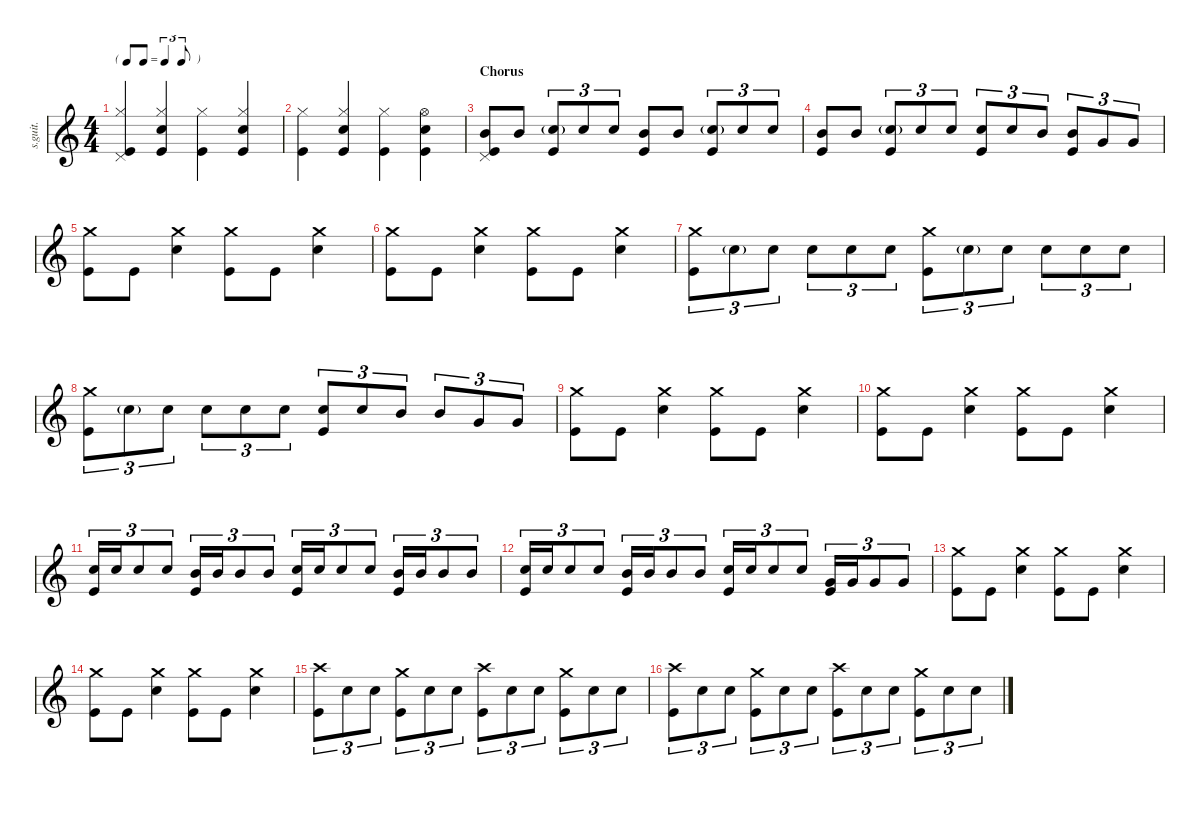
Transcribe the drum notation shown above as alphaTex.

\defaultSystemsLayout 4
\hideDynamics
\bracketExtendMode nobrackets
\track ("Dave Grohl" "s.guit.") {instrument percussion}
\staff {score}
\articulation defaults
\ts (4 4)
\tf triplet8th
\tempo (171 hide)
\clef g2
\ks c
("Kick (hit)" "Hi-Hat (closed)" "Pedal Hi-Hat (hit)").4{lyrics (0 "") lyrics (1 "") lyrics (2 "") lyrics (3 "") lyrics (4 "") dy mf} ("Kick (hit)" "Snare (hit) 2" "Hi-Hat (closed)").4{lyrics (0 "") lyrics (1 "") lyrics (2 "") lyrics (3 "") lyrics (4 "")} ("Kick (hit)" "Hi-Hat (closed)").4{lyrics (0 "") lyrics (1 "") lyrics (2 "") lyrics (3 "") lyrics (4 "")} ("Kick (hit)" "Snare (hit) 2" "Hi-Hat (closed)").4{lyrics (0 "") lyrics (1 "") lyrics (2 "") lyrics (3 "") lyrics (4 "")} |
("Kick (hit)" "Hi-Hat (closed)").4{lyrics (0 "") lyrics (1 "") lyrics (2 "") lyrics (3 "") lyrics (4 "")} ("Kick (hit)" "Snare (hit) 2" "Hi-Hat (closed)").4{lyrics (0 "") lyrics (1 "") lyrics (2 "") lyrics (3 "") lyrics (4 "")} ("Kick (hit)" "Hi-Hat (closed)").4{lyrics (0 "") lyrics (1 "") lyrics (2 "") lyrics (3 "") lyrics (4 "")} ("Hi-Hat (open)" "Snare (hit) 2" "Kick (hit)").4{lyrics (0 "") lyrics (1 "") lyrics (2 "") lyrics (3 "") lyrics (4 "")} |
\section ("" "Chorus")
("Mid Tom (hit)" "Kick (hit)" "Pedal Hi-Hat (hit)").8{lyrics (0 "") lyrics (1 "") lyrics (2 "") lyrics (3 "") lyrics (4 "")} "Mid Tom (hit)".8{lyrics (0 "") lyrics (1 "") lyrics (2 "") lyrics (3 "") lyrics (4 "")} ("Snare (hit) 2"{g} "Kick (hit)").8{tu (3 2) lyrics (0 "") lyrics (1 "") lyrics (2 "") lyrics (3 "") lyrics (4 "")} "Snare (hit) 2".8{tu (3 2) lyrics (0 "") lyrics (1 "") lyrics (2 "") lyrics (3 "") lyrics (4 "")} "Snare (hit) 2".8{tu (3 2) lyrics (0 "") lyrics (1 "") lyrics (2 "") lyrics (3 "") lyrics (4 "")} ("Mid Tom (hit)" "Kick (hit)").8{lyrics (0 "") lyrics (1 "") lyrics (2 "") lyrics (3 "") lyrics (4 "")} "Mid Tom (hit)".8{lyrics (0 "") lyrics (1 "") lyrics (2 "") lyrics (3 "") lyrics (4 "")} ("Snare (hit) 2"{g} "Kick (hit)").8{tu (3 2) lyrics (0 "") lyrics (1 "") lyrics (2 "") lyrics (3 "") lyrics (4 "")} "Snare (hit) 2".8{tu (3 2) lyrics (0 "") lyrics (1 "") lyrics (2 "") lyrics (3 "") lyrics (4 "")} "Snare (hit) 2".8{tu (3 2) lyrics (0 "") lyrics (1 "") lyrics (2 "") lyrics (3 "") lyrics (4 "")} |
("Mid Tom (hit)" "Kick (hit)").8{lyrics (0 "") lyrics (1 "") lyrics (2 "") lyrics (3 "") lyrics (4 "")} "Mid Tom (hit)".8{lyrics (0 "") lyrics (1 "") lyrics (2 "") lyrics (3 "") lyrics (4 "")} ("Snare (hit) 2"{g} "Kick (hit)").8{tu (3 2) lyrics (0 "") lyrics (1 "") lyrics (2 "") lyrics (3 "") lyrics (4 "")} "Snare (hit) 2".8{tu (3 2) lyrics (0 "") lyrics (1 "") lyrics (2 "") lyrics (3 "") lyrics (4 "")} "Snare (hit) 2".8{tu (3 2) lyrics (0 "") lyrics (1 "") lyrics (2 "") lyrics (3 "") lyrics (4 "")} ("Snare (hit) 2" "Kick (hit)").8{tu (3 2) lyrics (0 "") lyrics (1 "") lyrics (2 "") lyrics (3 "") lyrics (4 "")} "Snare (hit) 2".8{tu (3 2) lyrics (0 "") lyrics (1 "") lyrics (2 "") lyrics (3 "") lyrics (4 "")} "Mid Tom (hit)".8{tu (3 2) lyrics (0 "") lyrics (1 "") lyrics (2 "") lyrics (3 "") lyrics (4 "")} ("Mid Tom (hit)" "Kick (hit)").8{tu (3 2) lyrics (0 "") lyrics (1 "") lyrics (2 "") lyrics (3 "") lyrics (4 "")} "Very Low Tom (hit)".8{tu (3 2) lyrics (0 "") lyrics (1 "") lyrics (2 "") lyrics (3 "") lyrics (4 "")} "Very Low Tom (hit)".8{tu (3 2) lyrics (0 "") lyrics (1 "") lyrics (2 "") lyrics (3 "") lyrics (4 "")} |
("Kick (hit)" "Crash medium (hit)").8{lyrics (0 "") lyrics (1 "") lyrics (2 "") lyrics (3 "") lyrics (4 "")} "Kick (hit)".8{lyrics (0 "") lyrics (1 "") lyrics (2 "") lyrics (3 "") lyrics (4 "")} ("Crash medium (hit)" "Snare (hit) 2").4{lyrics (0 "") lyrics (1 "") lyrics (2 "") lyrics (3 "") lyrics (4 "")} ("Kick (hit)" "Crash medium (hit)").8{lyrics (0 "") lyrics (1 "") lyrics (2 "") lyrics (3 "") lyrics (4 "")} "Kick (hit)".8{lyrics (0 "") lyrics (1 "") lyrics (2 "") lyrics (3 "") lyrics (4 "")} ("Crash medium (hit)" "Snare (hit) 2").4{lyrics (0 "") lyrics (1 "") lyrics (2 "") lyrics (3 "") lyrics (4 "")} |
("Kick (hit)" "Crash medium (hit)").8{lyrics (0 "") lyrics (1 "") lyrics (2 "") lyrics (3 "") lyrics (4 "")} "Kick (hit)".8{lyrics (0 "") lyrics (1 "") lyrics (2 "") lyrics (3 "") lyrics (4 "")} ("Crash medium (hit)" "Snare (hit) 2").4{lyrics (0 "") lyrics (1 "") lyrics (2 "") lyrics (3 "") lyrics (4 "")} ("Kick (hit)" "Crash medium (hit)").8{lyrics (0 "") lyrics (1 "") lyrics (2 "") lyrics (3 "") lyrics (4 "")} "Kick (hit)".8{lyrics (0 "") lyrics (1 "") lyrics (2 "") lyrics (3 "") lyrics (4 "")} ("Crash medium (hit)" "Snare (hit) 2").4{lyrics (0 "") lyrics (1 "") lyrics (2 "") lyrics (3 "") lyrics (4 "")} |
("Kick (hit)" "Crash medium (hit)").8{tu (3 2) lyrics (0 "") lyrics (1 "") lyrics (2 "") lyrics (3 "") lyrics (4 "")} "Snare (hit) 2"{g}.8{tu (3 2) lyrics (0 "") lyrics (1 "") lyrics (2 "") lyrics (3 "") lyrics (4 "") dy fff} "Snare (hit) 2".8{tu (3 2) lyrics (0 "") lyrics (1 "") lyrics (2 "") lyrics (3 "") lyrics (4 "") dy mf} "Snare (hit) 2".8{tu (3 2) lyrics (0 "") lyrics (1 "") lyrics (2 "") lyrics (3 "") lyrics (4 "")} "Snare (hit) 2".8{tu (3 2) lyrics (0 "") lyrics (1 "") lyrics (2 "") lyrics (3 "") lyrics (4 "")} "Snare (hit) 2".8{tu (3 2) lyrics (0 "") lyrics (1 "") lyrics (2 "") lyrics (3 "") lyrics (4 "")} ("Kick (hit)" "Crash medium (hit)").8{tu (3 2) lyrics (0 "") lyrics (1 "") lyrics (2 "") lyrics (3 "") lyrics (4 "")} "Snare (hit) 2"{g}.8{tu (3 2) lyrics (0 "") lyrics (1 "") lyrics (2 "") lyrics (3 "") lyrics (4 "") dy fff} "Snare (hit) 2".8{tu (3 2) lyrics (0 "") lyrics (1 "") lyrics (2 "") lyrics (3 "") lyrics (4 "") dy mf} "Snare (hit) 2".8{tu (3 2) lyrics (0 "") lyrics (1 "") lyrics (2 "") lyrics (3 "") lyrics (4 "")} "Snare (hit) 2".8{tu (3 2) lyrics (0 "") lyrics (1 "") lyrics (2 "") lyrics (3 "") lyrics (4 "")} "Snare (hit) 2".8{tu (3 2) lyrics (0 "") lyrics (1 "") lyrics (2 "") lyrics (3 "") lyrics (4 "")} |
("Kick (hit)" "Crash medium (hit)").8{tu (3 2) lyrics (0 "") lyrics (1 "") lyrics (2 "") lyrics (3 "") lyrics (4 "")} "Snare (hit) 2"{g}.8{tu (3 2) lyrics (0 "") lyrics (1 "") lyrics (2 "") lyrics (3 "") lyrics (4 "") dy fff} "Snare (hit) 2".8{tu (3 2) lyrics (0 "") lyrics (1 "") lyrics (2 "") lyrics (3 "") lyrics (4 "") dy mf} "Snare (hit) 2".8{tu (3 2) lyrics (0 "") lyrics (1 "") lyrics (2 "") lyrics (3 "") lyrics (4 "")} "Snare (hit) 2".8{tu (3 2) lyrics (0 "") lyrics (1 "") lyrics (2 "") lyrics (3 "") lyrics (4 "")} "Snare (hit) 2".8{tu (3 2) lyrics (0 "") lyrics (1 "") lyrics (2 "") lyrics (3 "") lyrics (4 "")} ("Kick (hit)" "Snare (hit) 2").8{tu (3 2) lyrics (0 "") lyrics (1 "") lyrics (2 "") lyrics (3 "") lyrics (4 "")} "Snare (hit) 2".8{tu (3 2) lyrics (0 "") lyrics (1 "") lyrics (2 "") lyrics (3 "") lyrics (4 "")} "Mid Tom (hit)".8{tu (3 2) lyrics (0 "") lyrics (1 "") lyrics (2 "") lyrics (3 "") lyrics (4 "")} "Mid Tom (hit)".8{tu (3 2) lyrics (0 "") lyrics (1 "") lyrics (2 "") lyrics (3 "") lyrics (4 "")} "Very Low Tom (hit)".8{tu (3 2) lyrics (0 "") lyrics (1 "") lyrics (2 "") lyrics (3 "") lyrics (4 "")} "Very Low Tom (hit)".8{tu (3 2) lyrics (0 "") lyrics (1 "") lyrics (2 "") lyrics (3 "") lyrics (4 "")} |
("Kick (hit)" "Crash medium (hit)").8{lyrics (0 "") lyrics (1 "") lyrics (2 "") lyrics (3 "") lyrics (4 "")} "Kick (hit)".8{lyrics (0 "") lyrics (1 "") lyrics (2 "") lyrics (3 "") lyrics (4 "")} ("Crash medium (hit)" "Snare (hit) 2").4{lyrics (0 "") lyrics (1 "") lyrics (2 "") lyrics (3 "") lyrics (4 "")} ("Kick (hit)" "Crash medium (hit)").8{lyrics (0 "") lyrics (1 "") lyrics (2 "") lyrics (3 "") lyrics (4 "")} "Kick (hit)".8{lyrics (0 "") lyrics (1 "") lyrics (2 "") lyrics (3 "") lyrics (4 "")} ("Crash medium (hit)" "Snare (hit) 2").4{lyrics (0 "") lyrics (1 "") lyrics (2 "") lyrics (3 "") lyrics (4 "")} |
("Kick (hit)" "Crash medium (hit)").8{lyrics (0 "") lyrics (1 "") lyrics (2 "") lyrics (3 "") lyrics (4 "")} "Kick (hit)".8{lyrics (0 "") lyrics (1 "") lyrics (2 "") lyrics (3 "") lyrics (4 "")} ("Crash medium (hit)" "Snare (hit) 2").4{lyrics (0 "") lyrics (1 "") lyrics (2 "") lyrics (3 "") lyrics (4 "")} ("Kick (hit)" "Crash medium (hit)").8{lyrics (0 "") lyrics (1 "") lyrics (2 "") lyrics (3 "") lyrics (4 "")} "Kick (hit)".8{lyrics (0 "") lyrics (1 "") lyrics (2 "") lyrics (3 "") lyrics (4 "")} ("Crash medium (hit)" "Snare (hit) 2").4{lyrics (0 "") lyrics (1 "") lyrics (2 "") lyrics (3 "") lyrics (4 "")} |
("Snare (hit) 2" "Kick (hit)").16{tu (3 2) lyrics (0 "") lyrics (1 "") lyrics (2 "") lyrics (3 "") lyrics (4 "")} "Snare (hit) 2".16{tu (3 2) lyrics (0 "") lyrics (1 "") lyrics (2 "") lyrics (3 "") lyrics (4 "")} "Snare (hit) 2".8{tu (3 2) lyrics (0 "") lyrics (1 "") lyrics (2 "") lyrics (3 "") lyrics (4 "")} "Snare (hit) 2".8{tu (3 2) lyrics (0 "") lyrics (1 "") lyrics (2 "") lyrics (3 "") lyrics (4 "")} ("Mid Tom (hit)" "Kick (hit)").16{tu (3 2) lyrics (0 "") lyrics (1 "") lyrics (2 "") lyrics (3 "") lyrics (4 "")} "Mid Tom (hit)".16{tu (3 2) lyrics (0 "") lyrics (1 "") lyrics (2 "") lyrics (3 "") lyrics (4 "")} "Mid Tom (hit)".8{tu (3 2) lyrics (0 "") lyrics (1 "") lyrics (2 "") lyrics (3 "") lyrics (4 "")} "Mid Tom (hit)".8{tu (3 2) lyrics (0 "") lyrics (1 "") lyrics (2 "") lyrics (3 "") lyrics (4 "")} ("Snare (hit) 2" "Kick (hit)").16{tu (3 2) lyrics (0 "") lyrics (1 "") lyrics (2 "") lyrics (3 "") lyrics (4 "")} "Snare (hit) 2".16{tu (3 2) lyrics (0 "") lyrics (1 "") lyrics (2 "") lyrics (3 "") lyrics (4 "")} "Snare (hit) 2".8{tu (3 2) lyrics (0 "") lyrics (1 "") lyrics (2 "") lyrics (3 "") lyrics (4 "")} "Snare (hit) 2".8{tu (3 2) lyrics (0 "") lyrics (1 "") lyrics (2 "") lyrics (3 "") lyrics (4 "")} ("Mid Tom (hit)" "Kick (hit)").16{tu (3 2) lyrics (0 "") lyrics (1 "") lyrics (2 "") lyrics (3 "") lyrics (4 "")} "Mid Tom (hit)".16{tu (3 2) lyrics (0 "") lyrics (1 "") lyrics (2 "") lyrics (3 "") lyrics (4 "")} "Mid Tom (hit)".8{tu (3 2) lyrics (0 "") lyrics (1 "") lyrics (2 "") lyrics (3 "") lyrics (4 "")} "Mid Tom (hit)".8{tu (3 2) lyrics (0 "") lyrics (1 "") lyrics (2 "") lyrics (3 "") lyrics (4 "")} |
("Snare (hit) 2" "Kick (hit)").16{tu (3 2) lyrics (0 "") lyrics (1 "") lyrics (2 "") lyrics (3 "") lyrics (4 "")} "Snare (hit) 2".16{tu (3 2) lyrics (0 "") lyrics (1 "") lyrics (2 "") lyrics (3 "") lyrics (4 "")} "Snare (hit) 2".8{tu (3 2) lyrics (0 "") lyrics (1 "") lyrics (2 "") lyrics (3 "") lyrics (4 "")} "Snare (hit) 2".8{tu (3 2) lyrics (0 "") lyrics (1 "") lyrics (2 "") lyrics (3 "") lyrics (4 "")} ("Mid Tom (hit)" "Kick (hit)").16{tu (3 2) lyrics (0 "") lyrics (1 "") lyrics (2 "") lyrics (3 "") lyrics (4 "")} "Mid Tom (hit)".16{tu (3 2) lyrics (0 "") lyrics (1 "") lyrics (2 "") lyrics (3 "") lyrics (4 "")} "Mid Tom (hit)".8{tu (3 2) lyrics (0 "") lyrics (1 "") lyrics (2 "") lyrics (3 "") lyrics (4 "")} "Mid Tom (hit)".8{tu (3 2) lyrics (0 "") lyrics (1 "") lyrics (2 "") lyrics (3 "") lyrics (4 "")} ("Snare (hit) 2" "Kick (hit)").16{tu (3 2) lyrics (0 "") lyrics (1 "") lyrics (2 "") lyrics (3 "") lyrics (4 "")} "Snare (hit) 2".16{tu (3 2) lyrics (0 "") lyrics (1 "") lyrics (2 "") lyrics (3 "") lyrics (4 "")} "Snare (hit) 2".8{tu (3 2) lyrics (0 "") lyrics (1 "") lyrics (2 "") lyrics (3 "") lyrics (4 "")} "Snare (hit) 2".8{tu (3 2) lyrics (0 "") lyrics (1 "") lyrics (2 "") lyrics (3 "") lyrics (4 "")} ("Kick (hit)" "Very Low Tom (hit)").16{tu (3 2) lyrics (0 "") lyrics (1 "") lyrics (2 "") lyrics (3 "") lyrics (4 "")} "Very Low Tom (hit)".16{tu (3 2) lyrics (0 "") lyrics (1 "") lyrics (2 "") lyrics (3 "") lyrics (4 "")} "Very Low Tom (hit)".8{tu (3 2) lyrics (0 "") lyrics (1 "") lyrics (2 "") lyrics (3 "") lyrics (4 "")} "Very Low Tom (hit)".8{tu (3 2) lyrics (0 "") lyrics (1 "") lyrics (2 "") lyrics (3 "") lyrics (4 "")} |
("Kick (hit)" "Crash medium (hit)").8{lyrics (0 "") lyrics (1 "") lyrics (2 "") lyrics (3 "") lyrics (4 "")} "Kick (hit)".8{lyrics (0 "") lyrics (1 "") lyrics (2 "") lyrics (3 "") lyrics (4 "")} ("Crash medium (hit)" "Snare (hit) 2").4{lyrics (0 "") lyrics (1 "") lyrics (2 "") lyrics (3 "") lyrics (4 "")} ("Kick (hit)" "Crash medium (hit)").8{lyrics (0 "") lyrics (1 "") lyrics (2 "") lyrics (3 "") lyrics (4 "")} "Kick (hit)".8{lyrics (0 "") lyrics (1 "") lyrics (2 "") lyrics (3 "") lyrics (4 "")} ("Crash medium (hit)" "Snare (hit) 2").4{lyrics (0 "") lyrics (1 "") lyrics (2 "") lyrics (3 "") lyrics (4 "")} |
("Kick (hit)" "Crash medium (hit)").8{lyrics (0 "") lyrics (1 "") lyrics (2 "") lyrics (3 "") lyrics (4 "")} "Kick (hit)".8{lyrics (0 "") lyrics (1 "") lyrics (2 "") lyrics (3 "") lyrics (4 "")} ("Crash medium (hit)" "Snare (hit) 2").4{lyrics (0 "") lyrics (1 "") lyrics (2 "") lyrics (3 "") lyrics (4 "")} ("Kick (hit)" "Crash medium (hit)").8{lyrics (0 "") lyrics (1 "") lyrics (2 "") lyrics (3 "") lyrics (4 "")} "Kick (hit)".8{lyrics (0 "") lyrics (1 "") lyrics (2 "") lyrics (3 "") lyrics (4 "")} ("Crash medium (hit)" "Snare (hit) 2").4{lyrics (0 "") lyrics (1 "") lyrics (2 "") lyrics (3 "") lyrics (4 "")} |
("Crash high (hit)" "Kick (hit)").8{tu (3 2) lyrics (0 "") lyrics (1 "") lyrics (2 "") lyrics (3 "") lyrics (4 "")} "Snare (hit) 2".8{tu (3 2) lyrics (0 "") lyrics (1 "") lyrics (2 "") lyrics (3 "") lyrics (4 "")} "Snare (hit) 2".8{tu (3 2) lyrics (0 "") lyrics (1 "") lyrics (2 "") lyrics (3 "") lyrics (4 "")} ("Crash medium (hit)" "Kick (hit)").8{tu (3 2) lyrics (0 "") lyrics (1 "") lyrics (2 "") lyrics (3 "") lyrics (4 "")} "Snare (hit) 2".8{tu (3 2) lyrics (0 "") lyrics (1 "") lyrics (2 "") lyrics (3 "") lyrics (4 "")} "Snare (hit) 2".8{tu (3 2) lyrics (0 "") lyrics (1 "") lyrics (2 "") lyrics (3 "") lyrics (4 "")} ("Crash high (hit)" "Kick (hit)").8{tu (3 2) lyrics (0 "") lyrics (1 "") lyrics (2 "") lyrics (3 "") lyrics (4 "")} "Snare (hit) 2".8{tu (3 2) lyrics (0 "") lyrics (1 "") lyrics (2 "") lyrics (3 "") lyrics (4 "")} "Snare (hit) 2".8{tu (3 2) lyrics (0 "") lyrics (1 "") lyrics (2 "") lyrics (3 "") lyrics (4 "")} ("Crash medium (hit)" "Kick (hit)").8{tu (3 2) lyrics (0 "") lyrics (1 "") lyrics (2 "") lyrics (3 "") lyrics (4 "")} "Snare (hit) 2".8{tu (3 2) lyrics (0 "") lyrics (1 "") lyrics (2 "") lyrics (3 "") lyrics (4 "")} "Snare (hit) 2".8{tu (3 2) lyrics (0 "") lyrics (1 "") lyrics (2 "") lyrics (3 "") lyrics (4 "")} |
("Crash high (hit)" "Kick (hit)").8{tu (3 2) lyrics (0 "") lyrics (1 "") lyrics (2 "") lyrics (3 "") lyrics (4 "")} "Snare (hit) 2".8{tu (3 2) lyrics (0 "") lyrics (1 "") lyrics (2 "") lyrics (3 "") lyrics (4 "")} "Snare (hit) 2".8{tu (3 2) lyrics (0 "") lyrics (1 "") lyrics (2 "") lyrics (3 "") lyrics (4 "")} ("Crash medium (hit)" "Kick (hit)").8{tu (3 2) lyrics (0 "") lyrics (1 "") lyrics (2 "") lyrics (3 "") lyrics (4 "")} "Snare (hit) 2".8{tu (3 2) lyrics (0 "") lyrics (1 "") lyrics (2 "") lyrics (3 "") lyrics (4 "")} "Snare (hit) 2".8{tu (3 2) lyrics (0 "") lyrics (1 "") lyrics (2 "") lyrics (3 "") lyrics (4 "")} ("Crash high (hit)" "Kick (hit)").8{tu (3 2) lyrics (0 "") lyrics (1 "") lyrics (2 "") lyrics (3 "") lyrics (4 "")} "Snare (hit) 2".8{tu (3 2) lyrics (0 "") lyrics (1 "") lyrics (2 "") lyrics (3 "") lyrics (4 "")} "Snare (hit) 2".8{tu (3 2) lyrics (0 "") lyrics (1 "") lyrics (2 "") lyrics (3 "") lyrics (4 "")} ("Crash medium (hit)" "Kick (hit)").8{tu (3 2) lyrics (0 "") lyrics (1 "") lyrics (2 "") lyrics (3 "") lyrics (4 "")} "Snare (hit) 2".8{tu (3 2) lyrics (0 "") lyrics (1 "") lyrics (2 "") lyrics (3 "") lyrics (4 "")} "Snare (hit) 2".8{tu (3 2) lyrics (0 "") lyrics (1 "") lyrics (2 "") lyrics (3 "") lyrics (4 "")}
